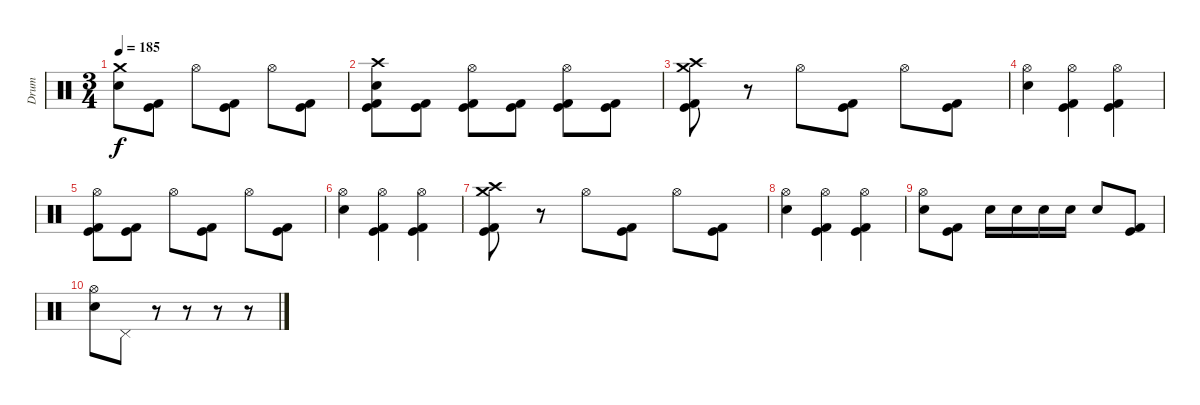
\track ("Drum" "Drum") {instrument percussion}
\staff {score}
\articulation defaults
\ts (3 4)
\tempo 185
\clef neutral
\ks c
("Crash medium (hit)" "Electric Snare (hit)").8{dy f} ("Kick (hit)" "Kick (hit) 2").8 "Hi-Hat (open)".8 ("Kick (hit)" "Kick (hit) 2").8 "Hi-Hat (open)".8 ("Kick (hit)" "Kick (hit) 2").8 |
("Crash high (hit)" "Electric Snare (hit)" "Kick (hit)" "Kick (hit) 2").8 ("Kick (hit)" "Kick (hit) 2").8 ("Hi-Hat (open)" "Kick (hit)" "Kick (hit) 2").8 ("Kick (hit)" "Kick (hit) 2").8 ("Hi-Hat (open)" "Kick (hit)" "Kick (hit) 2").8 ("Kick (hit)" "Kick (hit) 2").8 |
("Crash medium (hit)" "Crash high (hit)" "Kick (hit)" "Kick (hit) 2").8 r.8 "Hi-Hat (open)".8 ("Kick (hit)" "Kick (hit) 2").8 "Hi-Hat (open)".8 ("Kick (hit)" "Kick (hit) 2").8 |
("Hi-Hat (open)" "Electric Snare (hit)").4 ("Hi-Hat (open)" "Kick (hit)" "Kick (hit) 2").4 ("Hi-Hat (open)" "Kick (hit)" "Kick (hit) 2").4 |
("Hi-Hat (open)" "Kick (hit)" "Kick (hit) 2").8 ("Kick (hit)" "Kick (hit) 2").8 "Hi-Hat (open)".8 ("Kick (hit)" "Kick (hit) 2").8 "Hi-Hat (open)".8 ("Kick (hit)" "Kick (hit) 2").8 |
("Hi-Hat (open)" "Electric Snare (hit)").4 ("Hi-Hat (open)" "Kick (hit)" "Kick (hit) 2").4 ("Hi-Hat (open)" "Kick (hit)" "Kick (hit) 2").4 |
("Crash medium (hit)" "Crash high (hit)" "Kick (hit)" "Kick (hit) 2").8 r.8 "Hi-Hat (open)".8 ("Kick (hit)" "Kick (hit) 2").8 "Hi-Hat (open)".8 ("Kick (hit)" "Kick (hit) 2").8 |
("Hi-Hat (open)" "Electric Snare (hit)").4 ("Hi-Hat (open)" "Kick (hit)" "Kick (hit) 2").4 ("Hi-Hat (open)" "Kick (hit)" "Kick (hit) 2").4 |
("Hi-Hat (open)" "Electric Snare (hit)").8 ("Kick (hit)" "Kick (hit) 2").8 "Electric Snare (hit)".16 "Electric Snare (hit)".16 "Electric Snare (hit)".16 "Electric Snare (hit)".16 "Electric Snare (hit)".8 ("Kick (hit)" "Kick (hit) 2").8 |
("Hi-Hat (open)" "Electric Snare (hit)").8 "Pedal Hi-Hat (hit)".8 r.8 r.8 r.8 r.8
